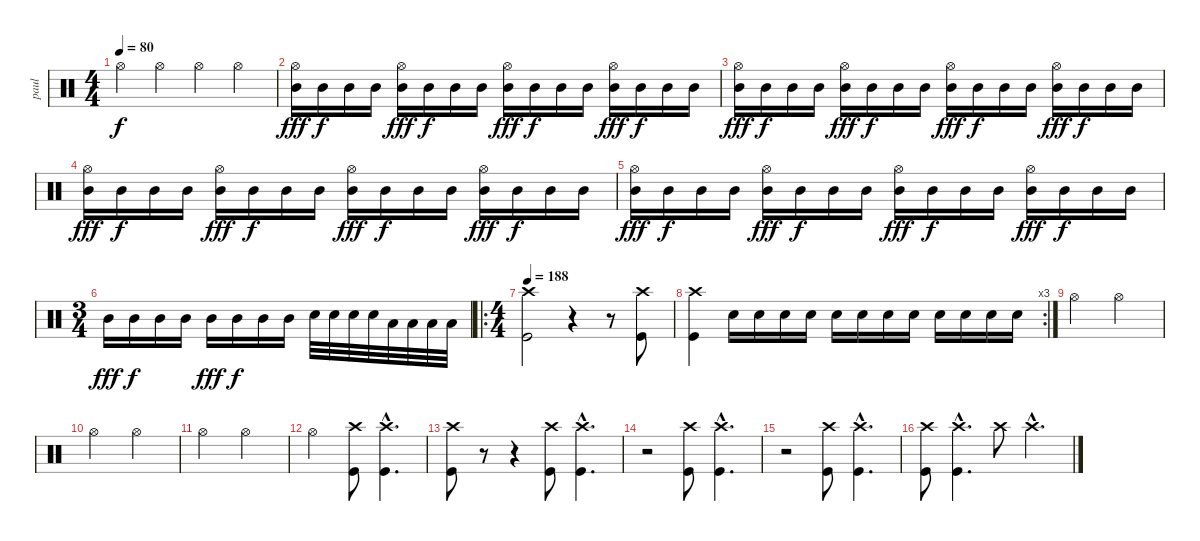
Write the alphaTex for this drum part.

\track ("paul" "paul") {instrument percussion}
\staff {score}
\articulation defaults
\ts (4 4)
\tempo 80
\clef neutral
\ks c "Hi-Hat (open)".4{dy f} "Hi-Hat (open)".4 "Hi-Hat (open)".4 "Hi-Hat (open)".4
|
("Hi-Hat (open)" "Mid Tom (hit)").16{dy fff} "Mid Tom (hit)".16{dy f} "Mid Tom (hit)".16 "Mid Tom (hit)".16 ("Hi-Hat (open)" "Mid Tom (hit)").16{dy fff} "Mid Tom (hit)".16{dy f} "Mid Tom (hit)".16 "Mid Tom (hit)".16 ("Hi-Hat (open)" "Mid Tom (hit)").16{dy fff} "Mid Tom (hit)".16{dy f} "Mid Tom (hit)".16 "Mid Tom (hit)".16 ("Hi-Hat (open)" "Mid Tom (hit)").16{dy fff} "Mid Tom (hit)".16{dy f} "Mid Tom (hit)".16 "Mid Tom (hit)".16 |
("Hi-Hat (open)" "Mid Tom (hit)").16{dy fff} "Mid Tom (hit)".16{dy f} "Mid Tom (hit)".16 "Mid Tom (hit)".16 ("Hi-Hat (open)" "Mid Tom (hit)").16{dy fff} "Mid Tom (hit)".16{dy f} "Mid Tom (hit)".16 "Mid Tom (hit)".16 ("Hi-Hat (open)" "Mid Tom (hit)").16{dy fff} "Mid Tom (hit)".16{dy f} "Mid Tom (hit)".16 "Mid Tom (hit)".16 ("Hi-Hat (open)" "Mid Tom (hit)").16{dy fff} "Mid Tom (hit)".16{dy f} "Mid Tom (hit)".16 "Mid Tom (hit)".16 |
("Hi-Hat (open)" "Mid Tom (hit)").16{dy fff} "Mid Tom (hit)".16{dy f} "Mid Tom (hit)".16 "Mid Tom (hit)".16 ("Hi-Hat (open)" "Mid Tom (hit)").16{dy fff} "Mid Tom (hit)".16{dy f} "Mid Tom (hit)".16 "Mid Tom (hit)".16 ("Hi-Hat (open)" "Mid Tom (hit)").16{dy fff} "Mid Tom (hit)".16{dy f} "Mid Tom (hit)".16 "Mid Tom (hit)".16 ("Hi-Hat (open)" "Mid Tom (hit)").16{dy fff} "Mid Tom (hit)".16{dy f} "Mid Tom (hit)".16 "Mid Tom (hit)".16 |
("Hi-Hat (open)" "Mid Tom (hit)").16{dy fff} "Mid Tom (hit)".16{dy f} "Mid Tom (hit)".16 "Mid Tom (hit)".16 ("Hi-Hat (open)" "Mid Tom (hit)").16{dy fff} "Mid Tom (hit)".16{dy f} "Mid Tom (hit)".16 "Mid Tom (hit)".16 ("Hi-Hat (open)" "Mid Tom (hit)").16{dy fff} "Mid Tom (hit)".16{dy f} "Mid Tom (hit)".16 "Mid Tom (hit)".16 ("Hi-Hat (open)" "Mid Tom (hit)").16{dy fff} "Mid Tom (hit)".16{dy f} "Mid Tom (hit)".16 "Mid Tom (hit)".16 |
\ts (3 4)
"Mid Tom (hit)".16{dy fff} "Mid Tom (hit)".16{dy f} "Mid Tom (hit)".16 "Mid Tom (hit)".16 "Mid Tom (hit)".16{dy fff} "Mid Tom (hit)".16{dy f} "Mid Tom (hit)".16 "Mid Tom (hit)".16 "Snare (hit) 2".32 "Snare (hit) 2".32 "Snare (hit) 2".32 "Snare (hit) 2".32 "Low Tom (hit)".32 "Low Tom (hit)".32 "Low Tom (hit)".32 "Low Tom (hit)".32 |
\ro
\ts (4 4)
\tempo 188
("Crash high (hit)" "Kick (hit)").2 r.4 r.8 ("Crash high (hit)" "Kick (hit)").8 |
\rc 3
("Crash high (hit)" "Kick (hit)").4 "Snare (hit) 2".16 "Snare (hit) 2".16 "Snare (hit) 2".16 "Snare (hit) 2".16 "Snare (hit) 2".16 "Snare (hit) 2".16 "Snare (hit) 2".16 "Snare (hit) 2".16 "Snare (hit) 2".16 "Snare (hit) 2".16 "Snare (hit) 2".16 "Snare (hit) 2".16 |
"Hi-Hat (open)".2 "Hi-Hat (open)".2 |
"Hi-Hat (open)".2 "Hi-Hat (open)".2 |
"Hi-Hat (open)".2 "Hi-Hat (open)".2 |
"Hi-Hat (open)".2 ("Crash high (hit)" "Kick (hit)").8 ("Crash high (hit)"{hac} "Kick (hit)"{hac}).4{d} |
("Crash high (hit)" "Kick (hit)").8 r.8 r.4 ("Crash high (hit)" "Kick (hit)").8 ("Crash high (hit)"{hac} "Kick (hit)"{hac}).4{d} |
r.2 ("Crash high (hit)" "Kick (hit)").8 ("Crash high (hit)"{hac} "Kick (hit)"{hac}).4{d} |
r.2 ("Crash high (hit)" "Kick (hit)").8 ("Crash high (hit)"{hac} "Kick (hit)"{hac}).4{d} |
("Crash high (hit)" "Kick (hit)").8 ("Crash high (hit)"{hac} "Kick (hit)"{hac}).4{d} "Crash high (hit)".8 "Crash high (hit)"{hac}.4{d}
